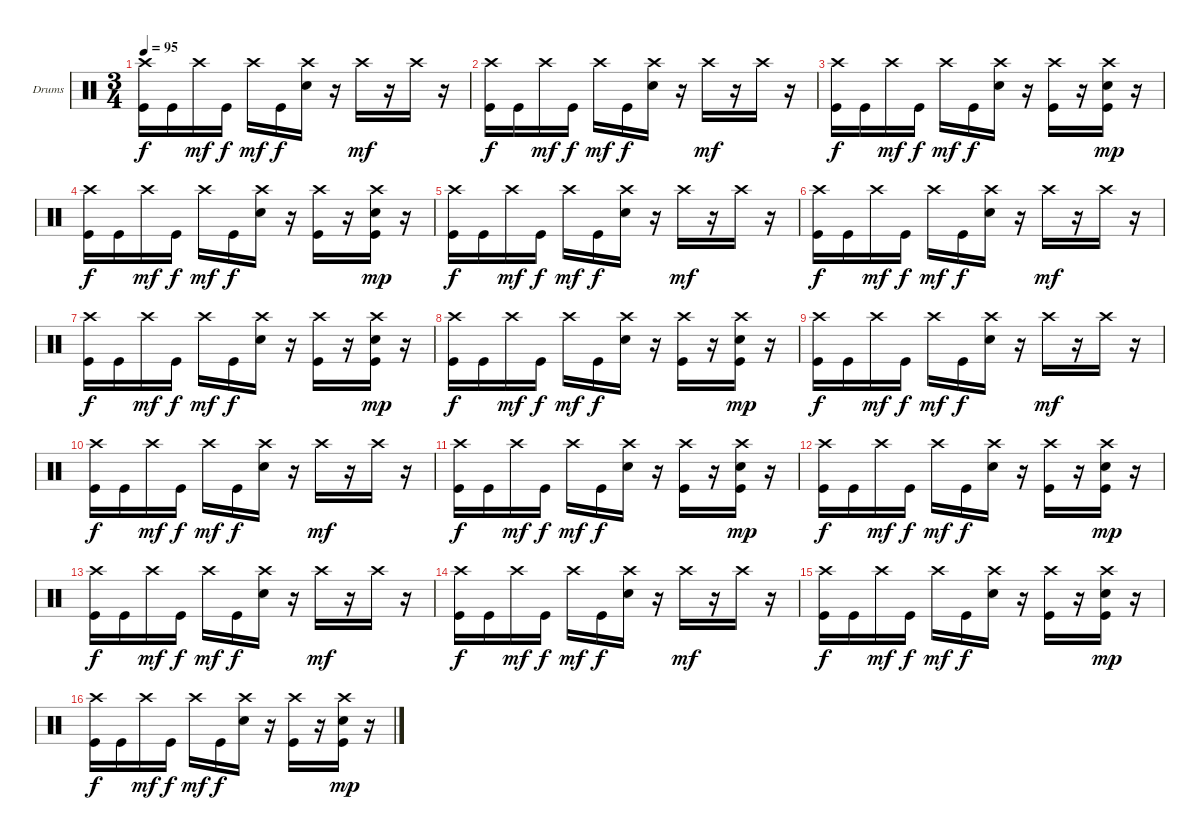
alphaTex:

\defaultSystemsLayout 4
\bracketExtendMode groupsimilarinstruments
\firstSystemTrackNameOrientation horizontal
\otherSystemsTrackNameOrientation horizontal
\track ("Drumkit" "Drums") {instrument percussion}
\staff {score}
\articulation defaults
\ts (3 4)
\tempo 95
\clef neutral
\ks c
("Kick (hit)" "Crash high (hit)").16{dy f} "Kick (hit)".16 "Crash high (hit)".16{dy mf} "Kick (hit)".16{dy f} "Crash high (hit)".16{dy mf} "Kick (hit)".16{dy f} ("Snare (hit) 2" "Crash high (hit)").16 r.16 "Crash high (hit)".16{dy mf} r.16 "Crash high (hit)".16 r.16 |
("Kick (hit)" "Crash high (hit)").16{dy f} "Kick (hit)".16 "Crash high (hit)".16{dy mf} "Kick (hit)".16{dy f} "Crash high (hit)".16{dy mf} "Kick (hit)".16{dy f} ("Snare (hit) 2" "Crash high (hit)").16 r.16 "Crash high (hit)".16{dy mf} r.16 "Crash high (hit)".16 r.16 |
("Kick (hit)" "Crash high (hit)").16{dy f} "Kick (hit)".16 "Crash high (hit)".16{dy mf} "Kick (hit)".16{dy f} "Crash high (hit)".16{dy mf} "Kick (hit)".16{dy f} ("Snare (hit) 2" "Crash high (hit)").16 r.16 ("Kick (hit)" "Crash high (hit)").16 r.16 ("Kick (hit)" "Snare (hit) 2" "Crash high (hit)").16{dy mp} r.16 |
("Kick (hit)" "Crash high (hit)").16{dy f} "Kick (hit)".16 "Crash high (hit)".16{dy mf} "Kick (hit)".16{dy f} "Crash high (hit)".16{dy mf} "Kick (hit)".16{dy f} ("Snare (hit) 2" "Crash high (hit)").16 r.16 ("Kick (hit)" "Crash high (hit)").16 r.16 ("Kick (hit)" "Snare (hit) 2" "Crash high (hit)").16{dy mp} r.16 |
("Kick (hit)" "Crash high (hit)").16{dy f} "Kick (hit)".16 "Crash high (hit)".16{dy mf} "Kick (hit)".16{dy f} "Crash high (hit)".16{dy mf} "Kick (hit)".16{dy f} ("Snare (hit) 2" "Crash high (hit)").16 r.16 "Crash high (hit)".16{dy mf} r.16 "Crash high (hit)".16 r.16 |
("Kick (hit)" "Crash high (hit)").16{dy f} "Kick (hit)".16 "Crash high (hit)".16{dy mf} "Kick (hit)".16{dy f} "Crash high (hit)".16{dy mf} "Kick (hit)".16{dy f} ("Snare (hit) 2" "Crash high (hit)").16 r.16 "Crash high (hit)".16{dy mf} r.16 "Crash high (hit)".16 r.16 |
("Kick (hit)" "Crash high (hit)").16{dy f} "Kick (hit)".16 "Crash high (hit)".16{dy mf} "Kick (hit)".16{dy f} "Crash high (hit)".16{dy mf} "Kick (hit)".16{dy f} ("Snare (hit) 2" "Crash high (hit)").16 r.16 ("Kick (hit)" "Crash high (hit)").16 r.16 ("Kick (hit)" "Snare (hit) 2" "Crash high (hit)").16{dy mp} r.16 |
("Kick (hit)" "Crash high (hit)").16{dy f} "Kick (hit)".16 "Crash high (hit)".16{dy mf} "Kick (hit)".16{dy f} "Crash high (hit)".16{dy mf} "Kick (hit)".16{dy f} ("Snare (hit) 2" "Crash high (hit)").16 r.16 ("Kick (hit)" "Crash high (hit)").16 r.16 ("Kick (hit)" "Snare (hit) 2" "Crash high (hit)").16{dy mp} r.16 |
("Kick (hit)" "Crash high (hit)").16{dy f} "Kick (hit)".16 "Crash high (hit)".16{dy mf} "Kick (hit)".16{dy f} "Crash high (hit)".16{dy mf} "Kick (hit)".16{dy f} ("Snare (hit) 2" "Crash high (hit)").16 r.16 "Crash high (hit)".16{dy mf} r.16 "Crash high (hit)".16 r.16 |
("Kick (hit)" "Crash high (hit)").16{dy f} "Kick (hit)".16 "Crash high (hit)".16{dy mf} "Kick (hit)".16{dy f} "Crash high (hit)".16{dy mf} "Kick (hit)".16{dy f} ("Snare (hit) 2" "Crash high (hit)").16 r.16 "Crash high (hit)".16{dy mf} r.16 "Crash high (hit)".16 r.16 |
("Kick (hit)" "Crash high (hit)").16{dy f} "Kick (hit)".16 "Crash high (hit)".16{dy mf} "Kick (hit)".16{dy f} "Crash high (hit)".16{dy mf} "Kick (hit)".16{dy f} ("Snare (hit) 2" "Crash high (hit)").16 r.16 ("Kick (hit)" "Crash high (hit)").16 r.16 ("Kick (hit)" "Snare (hit) 2" "Crash high (hit)").16{dy mp} r.16 |
("Kick (hit)" "Crash high (hit)").16{dy f} "Kick (hit)".16 "Crash high (hit)".16{dy mf} "Kick (hit)".16{dy f} "Crash high (hit)".16{dy mf} "Kick (hit)".16{dy f} ("Snare (hit) 2" "Crash high (hit)").16 r.16 ("Kick (hit)" "Crash high (hit)").16 r.16 ("Kick (hit)" "Snare (hit) 2" "Crash high (hit)").16{dy mp} r.16 |
("Kick (hit)" "Crash high (hit)").16{dy f} "Kick (hit)".16 "Crash high (hit)".16{dy mf} "Kick (hit)".16{dy f} "Crash high (hit)".16{dy mf} "Kick (hit)".16{dy f} ("Snare (hit) 2" "Crash high (hit)").16 r.16 "Crash high (hit)".16{dy mf} r.16 "Crash high (hit)".16 r.16 |
("Kick (hit)" "Crash high (hit)").16{dy f} "Kick (hit)".16 "Crash high (hit)".16{dy mf} "Kick (hit)".16{dy f} "Crash high (hit)".16{dy mf} "Kick (hit)".16{dy f} ("Snare (hit) 2" "Crash high (hit)").16 r.16 "Crash high (hit)".16{dy mf} r.16 "Crash high (hit)".16 r.16 |
("Kick (hit)" "Crash high (hit)").16{dy f} "Kick (hit)".16 "Crash high (hit)".16{dy mf} "Kick (hit)".16{dy f} "Crash high (hit)".16{dy mf} "Kick (hit)".16{dy f} ("Snare (hit) 2" "Crash high (hit)").16 r.16 ("Kick (hit)" "Crash high (hit)").16 r.16 ("Kick (hit)" "Snare (hit) 2" "Crash high (hit)").16{dy mp} r.16 |
("Kick (hit)" "Crash high (hit)").16{dy f} "Kick (hit)".16 "Crash high (hit)".16{dy mf} "Kick (hit)".16{dy f} "Crash high (hit)".16{dy mf} "Kick (hit)".16{dy f} ("Snare (hit) 2" "Crash high (hit)").16 r.16 ("Kick (hit)" "Crash high (hit)").16 r.16 ("Kick (hit)" "Snare (hit) 2" "Crash high (hit)").16{dy mp} r.16
